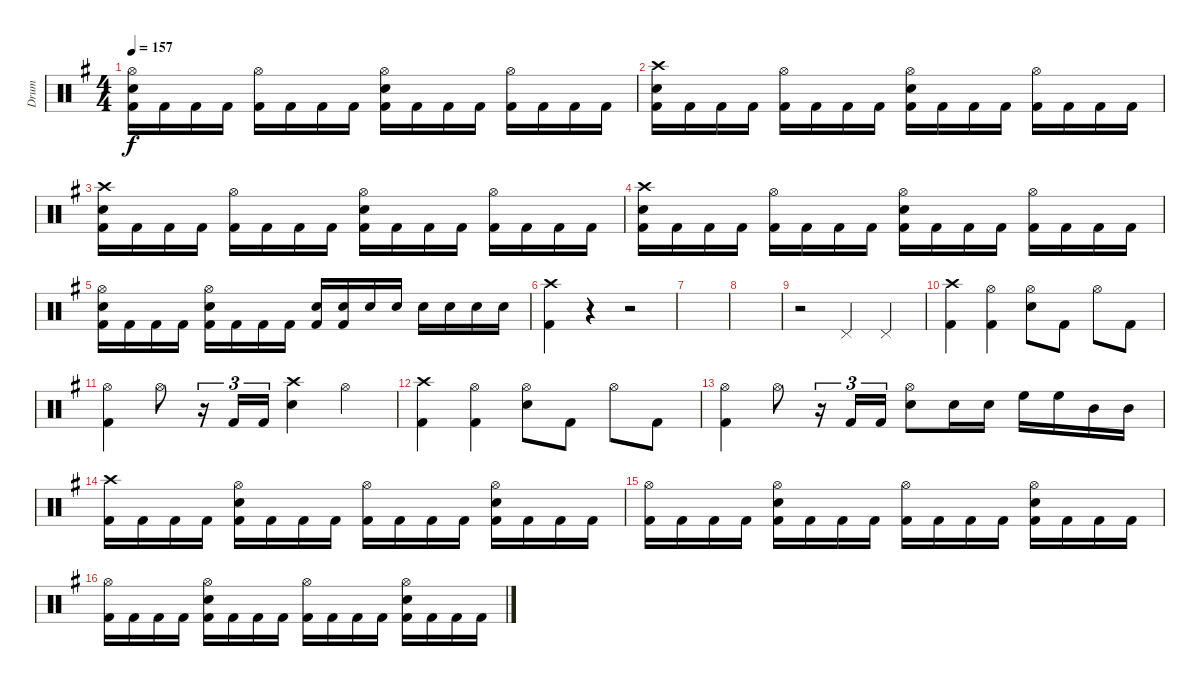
\track ("Drum" "Drum") {instrument percussion}
\staff {score}
\articulation defaults
\ts (4 4)
\tempo 157
\clef neutral
\ks eminor
("Hi-Hat (open)" "Snare (hit) 2" "Kick (hit) 2").16{dy f} "Kick (hit) 2".16 "Kick (hit) 2".16 "Kick (hit) 2".16 ("Hi-Hat (open)" "Kick (hit) 2").16 "Kick (hit) 2".16 "Kick (hit) 2".16 "Kick (hit) 2".16 ("Hi-Hat (open)" "Snare (hit) 2" "Kick (hit) 2").16 "Kick (hit) 2".16 "Kick (hit) 2".16 "Kick (hit) 2".16 ("Hi-Hat (open)" "Kick (hit) 2").16 "Kick (hit) 2".16 "Kick (hit) 2".16 "Kick (hit) 2".16 |
("Crash high (hit)" "Snare (hit) 2" "Kick (hit) 2").16 "Kick (hit) 2".16 "Kick (hit) 2".16 "Kick (hit) 2".16 ("Hi-Hat (open)" "Kick (hit) 2").16 "Kick (hit) 2".16 "Kick (hit) 2".16 "Kick (hit) 2".16 ("Hi-Hat (open)" "Snare (hit) 2" "Kick (hit) 2").16 "Kick (hit) 2".16 "Kick (hit) 2".16 "Kick (hit) 2".16 ("Hi-Hat (open)" "Kick (hit) 2").16 "Kick (hit) 2".16 "Kick (hit) 2".16 "Kick (hit) 2".16 |
("Crash high (hit)" "Snare (hit) 2" "Kick (hit) 2").16 "Kick (hit) 2".16 "Kick (hit) 2".16 "Kick (hit) 2".16 ("Hi-Hat (open)" "Kick (hit) 2").16 "Kick (hit) 2".16 "Kick (hit) 2".16 "Kick (hit) 2".16 ("Hi-Hat (open)" "Snare (hit) 2" "Kick (hit) 2").16 "Kick (hit) 2".16 "Kick (hit) 2".16 "Kick (hit) 2".16 ("Hi-Hat (open)" "Kick (hit) 2").16 "Kick (hit) 2".16 "Kick (hit) 2".16 "Kick (hit) 2".16 |
("Crash high (hit)" "Snare (hit) 2" "Kick (hit) 2").16 "Kick (hit) 2".16 "Kick (hit) 2".16 "Kick (hit) 2".16 ("Hi-Hat (open)" "Kick (hit) 2").16 "Kick (hit) 2".16 "Kick (hit) 2".16 "Kick (hit) 2".16 ("Hi-Hat (open)" "Snare (hit) 2" "Kick (hit) 2").16 "Kick (hit) 2".16 "Kick (hit) 2".16 "Kick (hit) 2".16 ("Hi-Hat (open)" "Kick (hit) 2").16 "Kick (hit) 2".16 "Kick (hit) 2".16 "Kick (hit) 2".16 |
("Hi-Hat (open)" "Snare (hit) 2" "Kick (hit) 2").16 "Kick (hit) 2".16 "Kick (hit) 2".16 "Kick (hit) 2".16 ("Hi-Hat (open)" "Snare (hit) 2" "Kick (hit) 2").16 "Kick (hit) 2".16 "Kick (hit) 2".16 "Kick (hit) 2".16 ("Snare (hit) 2" "Kick (hit) 2").16 ("Snare (hit) 2" "Kick (hit) 2").16 "Snare (hit) 2".16 "Snare (hit) 2".16 "Snare (hit) 2".16 "Snare (hit) 2".16 "Snare (hit) 2".16 "Snare (hit) 2".16 |
("Crash high (hit)" "Kick (hit) 2").4 r.4 r.2 |
|
|
r.2 "Pedal Hi-Hat (hit)".4 "Pedal Hi-Hat (hit)".4 |
("Crash high (hit)" "Kick (hit) 2").4 ("Hi-Hat (open)" "Kick (hit) 2").4 ("Hi-Hat (open)" "Snare (hit) 2").8 "Kick (hit) 2".8 "Hi-Hat (open)".8 "Kick (hit) 2".8 |
("Hi-Hat (open)" "Kick (hit) 2").4 "Hi-Hat (open)".8 r.16{tu (3 2)} "Kick (hit) 2".16{tu (3 2)} "Kick (hit) 2".16{tu (3 2)} ("Crash high (hit)" "Snare (hit) 2").4 "Hi-Hat (open)".4 |
("Crash high (hit)" "Kick (hit) 2").4 ("Hi-Hat (open)" "Kick (hit) 2").4 ("Hi-Hat (open)" "Snare (hit) 2").8 "Kick (hit) 2".8 "Hi-Hat (open)".8 "Kick (hit) 2".8 |
("Hi-Hat (open)" "Kick (hit) 2").4 "Hi-Hat (open)".8 r.16{tu (3 2)} "Kick (hit) 2".16{tu (3 2)} "Kick (hit) 2".16{tu (3 2)} ("Hi-Hat (open)" "Snare (hit) 2").8 "Snare (hit) 2".16 "Snare (hit) 2".16 "High Floor Tom (hit)".16 "High Floor Tom (hit)".16 "Mid Tom (hit)".16 "Mid Tom (hit)".16 |
("Crash high (hit)" "Kick (hit) 2").16 "Kick (hit) 2".16 "Kick (hit) 2".16 "Kick (hit) 2".16 ("Hi-Hat (open)" "Snare (hit) 2" "Kick (hit) 2").16 "Kick (hit) 2".16 "Kick (hit) 2".16 "Kick (hit) 2".16 ("Hi-Hat (open)" "Kick (hit) 2").16 "Kick (hit) 2".16 "Kick (hit) 2".16 "Kick (hit) 2".16 ("Hi-Hat (open)" "Snare (hit) 2" "Kick (hit) 2").16 "Kick (hit) 2".16 "Kick (hit) 2".16 "Kick (hit) 2".16 |
("Hi-Hat (open)" "Kick (hit) 2").16 "Kick (hit) 2".16 "Kick (hit) 2".16 "Kick (hit) 2".16 ("Hi-Hat (open)" "Snare (hit) 2" "Kick (hit) 2").16 "Kick (hit) 2".16 "Kick (hit) 2".16 "Kick (hit) 2".16 ("Hi-Hat (open)" "Kick (hit) 2").16 "Kick (hit) 2".16 "Kick (hit) 2".16 "Kick (hit) 2".16 ("Hi-Hat (open)" "Snare (hit) 2" "Kick (hit) 2").16 "Kick (hit) 2".16 "Kick (hit) 2".16 "Kick (hit) 2".16 |
("Hi-Hat (open)" "Kick (hit) 2").16 "Kick (hit) 2".16 "Kick (hit) 2".16 "Kick (hit) 2".16 ("Hi-Hat (open)" "Snare (hit) 2" "Kick (hit) 2").16 "Kick (hit) 2".16 "Kick (hit) 2".16 "Kick (hit) 2".16 ("Hi-Hat (open)" "Kick (hit) 2").16 "Kick (hit) 2".16 "Kick (hit) 2".16 "Kick (hit) 2".16 ("Hi-Hat (open)" "Snare (hit) 2" "Kick (hit) 2").16 "Kick (hit) 2".16 "Kick (hit) 2".16 "Kick (hit) 2".16
